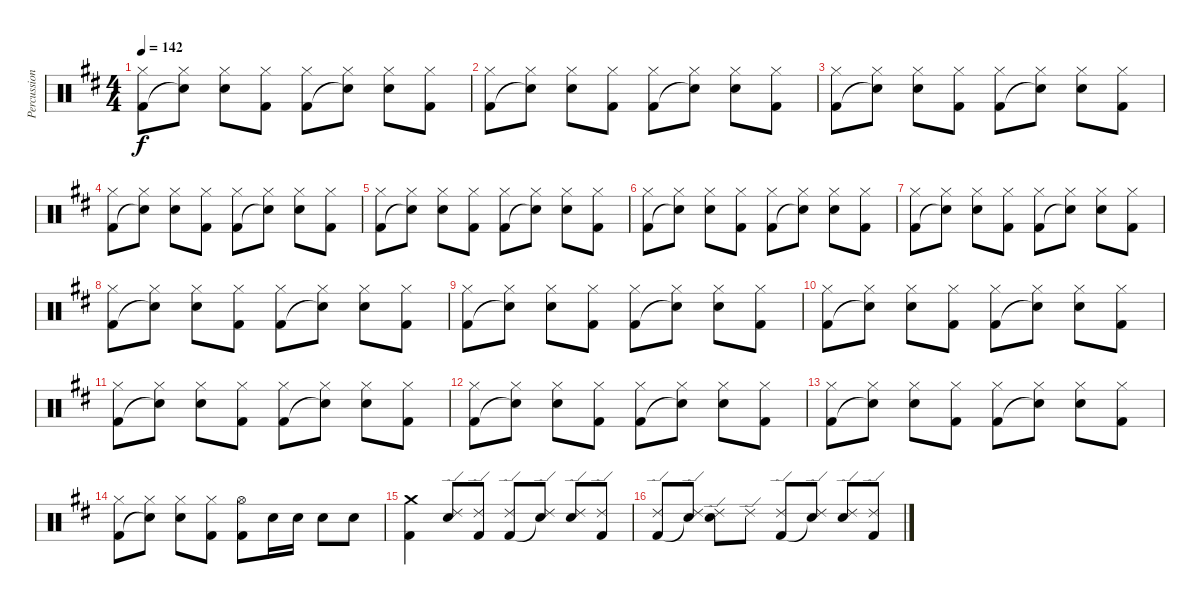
\track ("Percussion" "Percussion") {instrument percussion}
\staff {score}
\articulation defaults
\ts (4 4)
\tempo 142
\clef neutral
\ks d
("Hi-Hat (closed)" "Kick (hit) 2").8{dy f} ("Hi-Hat (closed)" "Snare (hit)"{t}).8 ("Hi-Hat (closed)" "Snare (hit) 2").8 ("Hi-Hat (closed)" "Kick (hit) 2").8 ("Hi-Hat (closed)" "Kick (hit) 2").8 ("Hi-Hat (closed)" "Snare (hit)"{t}).8 ("Hi-Hat (closed)" "Snare (hit) 2").8 ("Hi-Hat (closed)" "Kick (hit) 2").8 |
("Hi-Hat (closed)" "Kick (hit) 2").8 ("Hi-Hat (closed)" "Snare (hit)"{t}).8 ("Hi-Hat (closed)" "Snare (hit) 2").8 ("Hi-Hat (closed)" "Kick (hit) 2").8 ("Hi-Hat (closed)" "Kick (hit) 2").8 ("Hi-Hat (closed)" "Snare (hit)"{t}).8 ("Hi-Hat (closed)" "Snare (hit) 2").8 ("Hi-Hat (closed)" "Kick (hit) 2").8 |
("Hi-Hat (closed)" "Kick (hit) 2").8 ("Hi-Hat (closed)" "Snare (hit)"{t}).8 ("Hi-Hat (closed)" "Snare (hit) 2").8 ("Hi-Hat (closed)" "Kick (hit) 2").8 ("Hi-Hat (closed)" "Kick (hit) 2").8 ("Hi-Hat (closed)" "Snare (hit)"{t}).8 ("Hi-Hat (closed)" "Snare (hit) 2").8 ("Hi-Hat (closed)" "Kick (hit) 2").8 |
("Hi-Hat (closed)" "Kick (hit) 2").8 ("Hi-Hat (closed)" "Snare (hit)"{t}).8 ("Hi-Hat (closed)" "Snare (hit) 2").8 ("Hi-Hat (closed)" "Kick (hit) 2").8 ("Hi-Hat (closed)" "Kick (hit) 2").8 ("Hi-Hat (closed)" "Snare (hit)"{t}).8 ("Hi-Hat (closed)" "Snare (hit) 2").8 ("Hi-Hat (closed)" "Kick (hit) 2").8 |
("Hi-Hat (closed)" "Kick (hit) 2").8 ("Hi-Hat (closed)" "Snare (hit)"{t}).8 ("Hi-Hat (closed)" "Snare (hit) 2").8 ("Hi-Hat (closed)" "Kick (hit) 2").8 ("Hi-Hat (closed)" "Kick (hit) 2").8 ("Hi-Hat (closed)" "Snare (hit)"{t}).8 ("Hi-Hat (closed)" "Snare (hit) 2").8 ("Hi-Hat (closed)" "Kick (hit) 2").8 |
("Hi-Hat (closed)" "Kick (hit) 2").8 ("Hi-Hat (closed)" "Snare (hit)"{t}).8 ("Hi-Hat (closed)" "Snare (hit) 2").8 ("Hi-Hat (closed)" "Kick (hit) 2").8 ("Hi-Hat (closed)" "Kick (hit) 2").8 ("Hi-Hat (closed)" "Snare (hit)"{t}).8 ("Hi-Hat (closed)" "Snare (hit) 2").8 ("Hi-Hat (closed)" "Kick (hit) 2").8 |
("Hi-Hat (closed)" "Kick (hit) 2").8 ("Hi-Hat (closed)" "Snare (hit)"{t}).8 ("Hi-Hat (closed)" "Snare (hit) 2").8 ("Hi-Hat (closed)" "Kick (hit) 2").8 ("Hi-Hat (closed)" "Kick (hit) 2").8 ("Hi-Hat (closed)" "Snare (hit)"{t}).8 ("Hi-Hat (closed)" "Snare (hit) 2").8 ("Hi-Hat (closed)" "Kick (hit) 2").8 |
("Hi-Hat (closed)" "Kick (hit) 2").8 ("Hi-Hat (closed)" "Snare (hit)"{t}).8 ("Hi-Hat (closed)" "Snare (hit) 2").8 ("Hi-Hat (closed)" "Kick (hit) 2").8 ("Hi-Hat (closed)" "Kick (hit) 2").8 ("Hi-Hat (closed)" "Snare (hit)"{t}).8 ("Hi-Hat (closed)" "Snare (hit) 2").8 ("Hi-Hat (closed)" "Kick (hit) 2").8 |
("Hi-Hat (closed)" "Kick (hit) 2").8 ("Hi-Hat (closed)" "Snare (hit)"{t}).8 ("Hi-Hat (closed)" "Snare (hit) 2").8 ("Hi-Hat (closed)" "Kick (hit) 2").8 ("Hi-Hat (closed)" "Kick (hit) 2").8 ("Hi-Hat (closed)" "Snare (hit)"{t}).8 ("Hi-Hat (closed)" "Snare (hit) 2").8 ("Hi-Hat (closed)" "Kick (hit) 2").8 |
("Hi-Hat (closed)" "Kick (hit) 2").8 ("Hi-Hat (closed)" "Snare (hit)"{t}).8 ("Hi-Hat (closed)" "Snare (hit) 2").8 ("Hi-Hat (closed)" "Kick (hit) 2").8 ("Hi-Hat (closed)" "Kick (hit) 2").8 ("Hi-Hat (closed)" "Snare (hit)"{t}).8 ("Hi-Hat (closed)" "Snare (hit) 2").8 ("Hi-Hat (closed)" "Kick (hit) 2").8 |
("Hi-Hat (closed)" "Kick (hit) 2").8 ("Hi-Hat (closed)" "Snare (hit)"{t}).8 ("Hi-Hat (closed)" "Snare (hit) 2").8 ("Hi-Hat (closed)" "Kick (hit) 2").8 ("Hi-Hat (closed)" "Kick (hit) 2").8 ("Hi-Hat (closed)" "Snare (hit)"{t}).8 ("Hi-Hat (closed)" "Snare (hit) 2").8 ("Hi-Hat (closed)" "Kick (hit) 2").8 |
("Hi-Hat (closed)" "Kick (hit) 2").8 ("Hi-Hat (closed)" "Snare (hit)"{t}).8 ("Hi-Hat (closed)" "Snare (hit) 2").8 ("Hi-Hat (closed)" "Kick (hit) 2").8 ("Hi-Hat (closed)" "Kick (hit) 2").8 ("Hi-Hat (closed)" "Snare (hit)"{t}).8 ("Hi-Hat (closed)" "Snare (hit) 2").8 ("Hi-Hat (closed)" "Kick (hit) 2").8 |
("Hi-Hat (closed)" "Kick (hit) 2").8 ("Hi-Hat (closed)" "Snare (hit)"{t}).8 ("Hi-Hat (closed)" "Snare (hit) 2").8 ("Hi-Hat (closed)" "Kick (hit) 2").8 ("Hi-Hat (closed)" "Kick (hit) 2").8 ("Hi-Hat (closed)" "Snare (hit)"{t}).8 ("Hi-Hat (closed)" "Snare (hit) 2").8 ("Hi-Hat (closed)" "Kick (hit) 2").8 |
("Hi-Hat (closed)" "Kick (hit) 2").8 ("Hi-Hat (closed)" "Snare (hit)"{t}).8 ("Hi-Hat (closed)" "Snare (hit) 2").8 ("Hi-Hat (closed)" "Kick (hit) 2").8 ("Hi-Hat (open)" "Kick (hit) 2").8 "Snare (hit) 2".16 "Snare (hit) 2".16 "Snare (hit) 2".8 "Snare (hit) 2".8 |
("Crash medium (hit)" "Kick (hit) 2").4 ("Ride (edge) 2" "Snare (hit) 2").8 ("Ride (edge) 2" "Kick (hit) 2").8 ("Ride (edge) 2" "Kick (hit) 2").8 ("Ride (edge) 2" "Snare (hit)"{t}).8 ("Ride (edge) 2" "Snare (hit) 2").8 ("Ride (edge) 2" "Kick (hit) 2").8 |
("Ride (edge) 2" "Kick (hit) 2").8 ("Ride (edge) 2" "Snare (hit)"{t}).8 ("Ride (edge) 2" "Snare (hit) 2").8 "Ride (edge) 2".8 ("Ride (edge) 2" "Kick (hit) 2").8 ("Ride (edge) 2" "Snare (hit)"{t}).8 ("Ride (edge) 2" "Snare (hit) 2").8 ("Ride (edge) 2" "Kick (hit) 2").8
